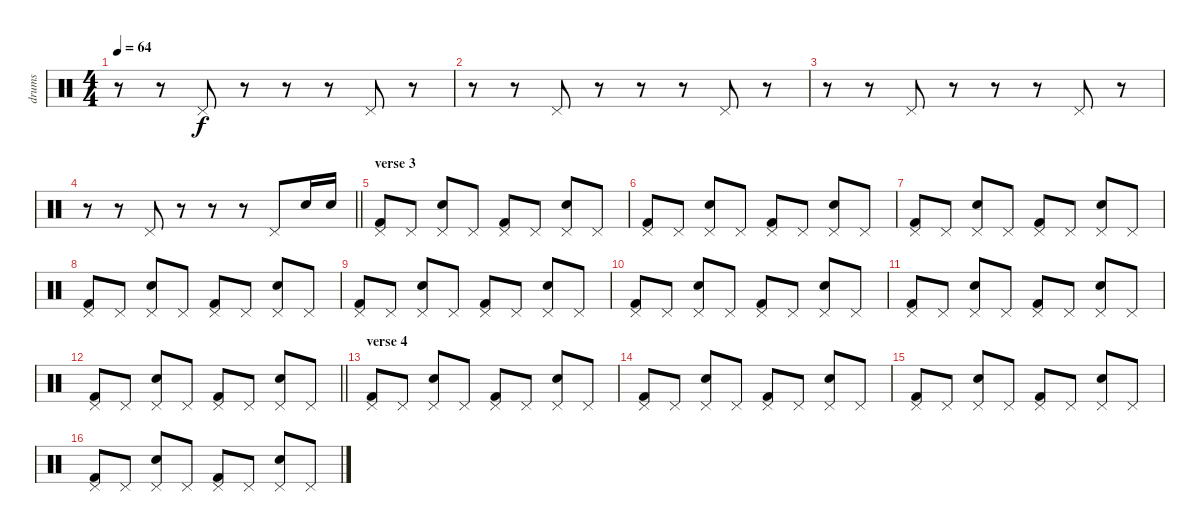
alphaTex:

\track ("drums" "drums") {instrument percussion}
\staff {score}
\articulation defaults
\ts (4 4)
\tempo 64
\clef neutral
\ks c
r.8{dy f} r.8 "Pedal Hi-Hat (hit)".8 r.8 r.8 r.8 "Pedal Hi-Hat (hit)".8 r.8 |
r.8 r.8 "Pedal Hi-Hat (hit)".8 r.8 r.8 r.8 "Pedal Hi-Hat (hit)".8 r.8 |
r.8 r.8 "Pedal Hi-Hat (hit)".8 r.8 r.8 r.8 "Pedal Hi-Hat (hit)".8 r.8 |
\barLineRight lightlight
r.8 r.8 "Pedal Hi-Hat (hit)".8 r.8 r.8 r.8 "Pedal Hi-Hat (hit)".8 "Electric Snare (hit)".16 "Electric Snare (hit)".16 |
\section ("" "verse 3")
("Kick (hit) 2" "Pedal Hi-Hat (hit)").8{volume 4} "Pedal Hi-Hat (hit)".8 ("Electric Snare (hit)" "Pedal Hi-Hat (hit)").8 "Pedal Hi-Hat (hit)".8 ("Kick (hit) 2" "Pedal Hi-Hat (hit)").8 "Pedal Hi-Hat (hit)".8 ("Electric Snare (hit)" "Pedal Hi-Hat (hit)").8 "Pedal Hi-Hat (hit)".8 |
("Kick (hit) 2" "Pedal Hi-Hat (hit)").8 "Pedal Hi-Hat (hit)".8 ("Electric Snare (hit)" "Pedal Hi-Hat (hit)").8 "Pedal Hi-Hat (hit)".8 ("Kick (hit) 2" "Pedal Hi-Hat (hit)").8 "Pedal Hi-Hat (hit)".8 ("Electric Snare (hit)" "Pedal Hi-Hat (hit)").8 "Pedal Hi-Hat (hit)".8 |
("Kick (hit) 2" "Pedal Hi-Hat (hit)").8 "Pedal Hi-Hat (hit)".8 ("Electric Snare (hit)" "Pedal Hi-Hat (hit)").8 "Pedal Hi-Hat (hit)".8 ("Kick (hit) 2" "Pedal Hi-Hat (hit)").8 "Pedal Hi-Hat (hit)".8 ("Electric Snare (hit)" "Pedal Hi-Hat (hit)").8 "Pedal Hi-Hat (hit)".8 |
("Kick (hit) 2" "Pedal Hi-Hat (hit)").8 "Pedal Hi-Hat (hit)".8 ("Electric Snare (hit)" "Pedal Hi-Hat (hit)").8 "Pedal Hi-Hat (hit)".8 ("Kick (hit) 2" "Pedal Hi-Hat (hit)").8 "Pedal Hi-Hat (hit)".8 ("Electric Snare (hit)" "Pedal Hi-Hat (hit)").8 "Pedal Hi-Hat (hit)".8 |
("Kick (hit) 2" "Pedal Hi-Hat (hit)").8 "Pedal Hi-Hat (hit)".8 ("Electric Snare (hit)" "Pedal Hi-Hat (hit)").8 "Pedal Hi-Hat (hit)".8 ("Kick (hit) 2" "Pedal Hi-Hat (hit)").8 "Pedal Hi-Hat (hit)".8 ("Electric Snare (hit)" "Pedal Hi-Hat (hit)").8 "Pedal Hi-Hat (hit)".8 |
("Kick (hit) 2" "Pedal Hi-Hat (hit)").8 "Pedal Hi-Hat (hit)".8 ("Electric Snare (hit)" "Pedal Hi-Hat (hit)").8 "Pedal Hi-Hat (hit)".8 ("Kick (hit) 2" "Pedal Hi-Hat (hit)").8 "Pedal Hi-Hat (hit)".8 ("Electric Snare (hit)" "Pedal Hi-Hat (hit)").8 "Pedal Hi-Hat (hit)".8 |
("Kick (hit) 2" "Pedal Hi-Hat (hit)").8 "Pedal Hi-Hat (hit)".8 ("Electric Snare (hit)" "Pedal Hi-Hat (hit)").8 "Pedal Hi-Hat (hit)".8 ("Kick (hit) 2" "Pedal Hi-Hat (hit)").8 "Pedal Hi-Hat (hit)".8 ("Electric Snare (hit)" "Pedal Hi-Hat (hit)").8 "Pedal Hi-Hat (hit)".8 |
\barLineRight lightlight
("Kick (hit) 2" "Pedal Hi-Hat (hit)").8 "Pedal Hi-Hat (hit)".8 ("Electric Snare (hit)" "Pedal Hi-Hat (hit)").8 "Pedal Hi-Hat (hit)".8 ("Kick (hit) 2" "Pedal Hi-Hat (hit)").8 "Pedal Hi-Hat (hit)".8 ("Electric Snare (hit)" "Pedal Hi-Hat (hit)").8 "Pedal Hi-Hat (hit)".8 |
\section ("" "verse 4")
("Kick (hit) 2" "Pedal Hi-Hat (hit)").8{volume 4} "Pedal Hi-Hat (hit)".8 ("Electric Snare (hit)" "Pedal Hi-Hat (hit)").8 "Pedal Hi-Hat (hit)".8 ("Kick (hit) 2" "Pedal Hi-Hat (hit)").8 "Pedal Hi-Hat (hit)".8 ("Electric Snare (hit)" "Pedal Hi-Hat (hit)").8 "Pedal Hi-Hat (hit)".8 |
("Kick (hit) 2" "Pedal Hi-Hat (hit)").8 "Pedal Hi-Hat (hit)".8 ("Electric Snare (hit)" "Pedal Hi-Hat (hit)").8 "Pedal Hi-Hat (hit)".8 ("Kick (hit) 2" "Pedal Hi-Hat (hit)").8 "Pedal Hi-Hat (hit)".8 ("Electric Snare (hit)" "Pedal Hi-Hat (hit)").8 "Pedal Hi-Hat (hit)".8 |
("Kick (hit) 2" "Pedal Hi-Hat (hit)").8 "Pedal Hi-Hat (hit)".8 ("Electric Snare (hit)" "Pedal Hi-Hat (hit)").8 "Pedal Hi-Hat (hit)".8 ("Kick (hit) 2" "Pedal Hi-Hat (hit)").8 "Pedal Hi-Hat (hit)".8 ("Electric Snare (hit)" "Pedal Hi-Hat (hit)").8 "Pedal Hi-Hat (hit)".8 |
("Kick (hit) 2" "Pedal Hi-Hat (hit)").8 "Pedal Hi-Hat (hit)".8 ("Electric Snare (hit)" "Pedal Hi-Hat (hit)").8 "Pedal Hi-Hat (hit)".8 ("Kick (hit) 2" "Pedal Hi-Hat (hit)").8 "Pedal Hi-Hat (hit)".8 ("Electric Snare (hit)" "Pedal Hi-Hat (hit)").8 "Pedal Hi-Hat (hit)".8
